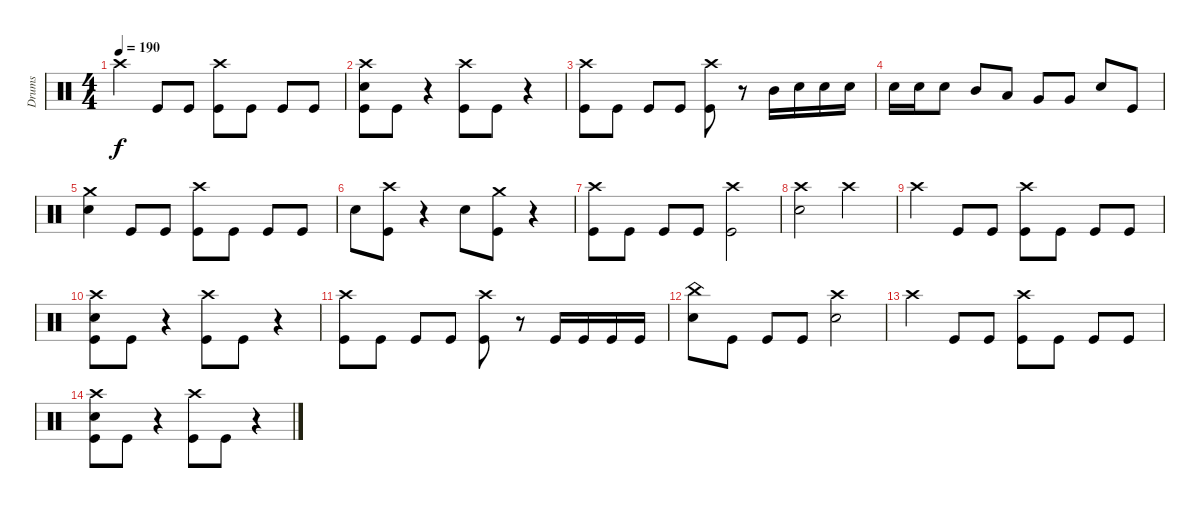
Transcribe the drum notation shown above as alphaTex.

\track ("Drums" "Drums") {instrument percussion}
\staff {score}
\articulation defaults
\ts (4 4)
\tempo 190
\clef neutral
\ks c "Crash high (hit)".4{dy f} "Kick (hit)".8 "Kick (hit)".8
("Crash high (hit)" "Kick (hit)").8 "Kick (hit)".8 "Kick (hit)".8 "Kick (hit)".8 |
("Crash high (hit)" "Snare (hit) 2" "Kick (hit)").8 "Kick (hit)".8 r.4 ("Crash high (hit)" "Kick (hit)").8 "Kick (hit)".8 r.4 |
("Crash high (hit)" "Kick (hit)").8 "Kick (hit)".8 "Kick (hit)".8 "Kick (hit)".8 ("Crash high (hit)" "Kick (hit)").8 r.8 "Mid Tom (hit)".16 "Snare (hit) 2".16 "Snare (hit) 2".16 "Snare (hit) 2".16 |
"Snare (hit) 2".16 "Snare (hit) 2".16 "Snare (hit) 2".8 "Mid Tom (hit)".8 "Low Tom (hit)".8 "Very Low Tom (hit)".8 "Very Low Tom (hit)".8 "Snare (hit) 2".8 "Kick (hit)".8 |
("Crash medium (hit)" "Snare (hit) 2").4 "Kick (hit)".8 "Kick (hit)".8 ("Crash high (hit)" "Kick (hit)").8 "Kick (hit)".8 "Kick (hit)".8 "Kick (hit)".8 |
"Snare (hit) 2".8 ("Crash high (hit)" "Kick (hit)").8 r.4 "Snare (hit) 2".8 ("Crash medium (hit)" "Kick (hit)").8 r.4 |
("Crash high (hit)" "Kick (hit)").8 "Kick (hit)".8 "Kick (hit)".8 "Kick (hit)".8 ("Crash high (hit)" "Kick (hit)").2 |
("Crash high (hit)" "Snare (hit) 2").2 "Crash high (hit)".2 |
"Crash high (hit)".4 "Kick (hit)".8 "Kick (hit)".8 ("Crash high (hit)" "Kick (hit)").8 "Kick (hit)".8 "Kick (hit)".8 "Kick (hit)".8 |
("Crash high (hit)" "Snare (hit) 2" "Kick (hit)").8 "Kick (hit)".8 r.4 ("Crash high (hit)" "Kick (hit)").8 "Kick (hit)".8 r.4 |
("Crash high (hit)" "Kick (hit)").8 "Kick (hit)".8 "Kick (hit)".8 "Kick (hit)".8 ("Crash high (hit)" "Kick (hit)").8 r.8 "Kick (hit)".16 "Kick (hit)".16 "Kick (hit)".16 "Kick (hit)".16 |
("China (hit)" "Snare (hit) 2").8 "Kick (hit)".8 "Kick (hit)".8 "Kick (hit)".8 ("Crash high (hit)" "Snare (hit) 2").2 |
"Crash high (hit)".4 "Kick (hit)".8 "Kick (hit)".8 ("Crash high (hit)" "Kick (hit)").8 "Kick (hit)".8 "Kick (hit)".8 "Kick (hit)".8 |
("Crash high (hit)" "Snare (hit) 2" "Kick (hit)").8 "Kick (hit)".8 r.4 ("Crash high (hit)" "Kick (hit)").8 "Kick (hit)".8 r.4
